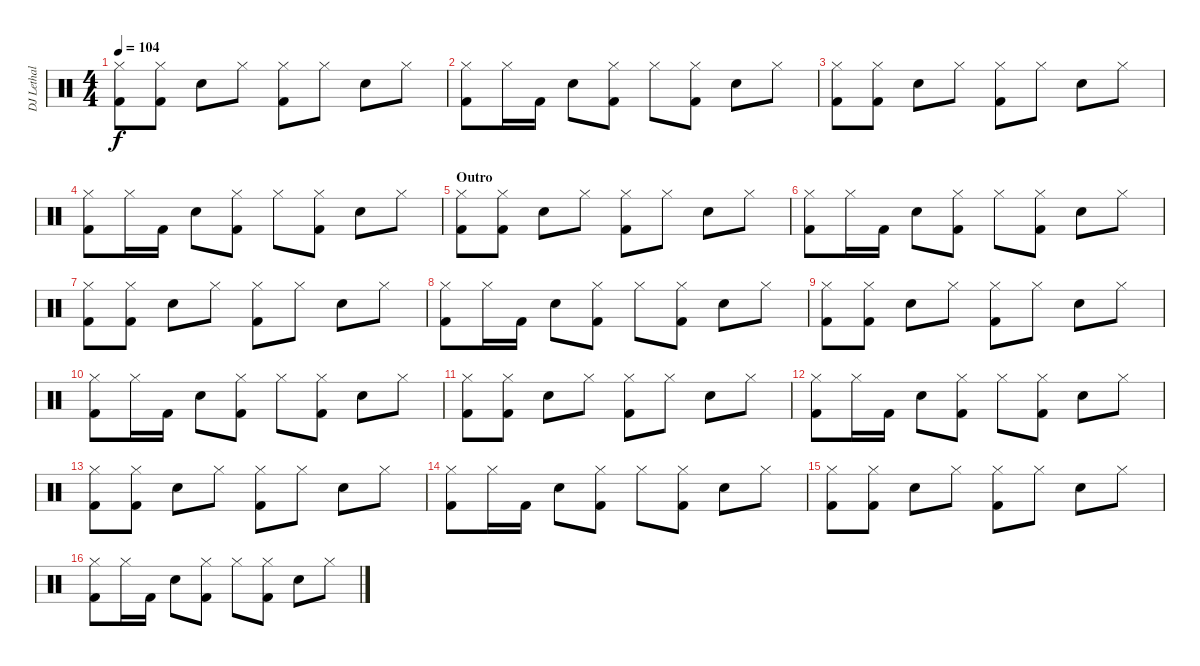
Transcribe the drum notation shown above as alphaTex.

\track ("DJ Lethal - Sample Drums" "DJ Lethal ") {instrument percussion}
\staff {score}
\articulation defaults
\ts (4 4)
\tempo 104
\clef neutral
\ks c
("Hi-Hat (closed)" "Kick (hit) 2").8{dy f} ("Hi-Hat (closed)" "Kick (hit) 2").8 "Electric Snare (hit)".8 "Hi-Hat (closed)".8 ("Hi-Hat (closed)" "Kick (hit) 2").8 "Hi-Hat (closed)".8 "Electric Snare (hit)".8 "Hi-Hat (closed)".8 |
("Hi-Hat (closed)" "Kick (hit) 2").8 "Hi-Hat (closed)".16 "Kick (hit) 2".16 "Electric Snare (hit)".8 ("Hi-Hat (closed)" "Kick (hit) 2").8 "Hi-Hat (closed)".8 ("Hi-Hat (closed)" "Kick (hit) 2").8 "Electric Snare (hit)".8 "Hi-Hat (closed)".8 |
("Hi-Hat (closed)" "Kick (hit) 2").8 ("Hi-Hat (closed)" "Kick (hit) 2").8 "Electric Snare (hit)".8 "Hi-Hat (closed)".8 ("Hi-Hat (closed)" "Kick (hit) 2").8 "Hi-Hat (closed)".8 "Electric Snare (hit)".8 "Hi-Hat (closed)".8 |
("Hi-Hat (closed)" "Kick (hit) 2").8 "Hi-Hat (closed)".16 "Kick (hit) 2".16 "Electric Snare (hit)".8 ("Hi-Hat (closed)" "Kick (hit) 2").8 "Hi-Hat (closed)".8 ("Hi-Hat (closed)" "Kick (hit) 2").8 "Electric Snare (hit)".8 "Hi-Hat (closed)".8 |
\section ("" "Outro")
("Hi-Hat (closed)" "Kick (hit) 2").8 ("Hi-Hat (closed)" "Kick (hit) 2").8 "Electric Snare (hit)".8 "Hi-Hat (closed)".8 ("Hi-Hat (closed)" "Kick (hit) 2").8 "Hi-Hat (closed)".8 "Electric Snare (hit)".8 "Hi-Hat (closed)".8 |
("Hi-Hat (closed)" "Kick (hit) 2").8 "Hi-Hat (closed)".16 "Kick (hit) 2".16 "Electric Snare (hit)".8 ("Hi-Hat (closed)" "Kick (hit) 2").8 "Hi-Hat (closed)".8 ("Hi-Hat (closed)" "Kick (hit) 2").8 "Electric Snare (hit)".8 "Hi-Hat (closed)".8 |
("Hi-Hat (closed)" "Kick (hit) 2").8 ("Hi-Hat (closed)" "Kick (hit) 2").8 "Electric Snare (hit)".8 "Hi-Hat (closed)".8 ("Hi-Hat (closed)" "Kick (hit) 2").8 "Hi-Hat (closed)".8 "Electric Snare (hit)".8 "Hi-Hat (closed)".8 |
("Hi-Hat (closed)" "Kick (hit) 2").8 "Hi-Hat (closed)".16 "Kick (hit) 2".16 "Electric Snare (hit)".8 ("Hi-Hat (closed)" "Kick (hit) 2").8 "Hi-Hat (closed)".8 ("Hi-Hat (closed)" "Kick (hit) 2").8 "Electric Snare (hit)".8 "Hi-Hat (closed)".8 |
("Hi-Hat (closed)" "Kick (hit) 2").8 ("Hi-Hat (closed)" "Kick (hit) 2").8 "Electric Snare (hit)".8 "Hi-Hat (closed)".8 ("Hi-Hat (closed)" "Kick (hit) 2").8 "Hi-Hat (closed)".8 "Electric Snare (hit)".8 "Hi-Hat (closed)".8 |
("Hi-Hat (closed)" "Kick (hit) 2").8 "Hi-Hat (closed)".16 "Kick (hit) 2".16 "Electric Snare (hit)".8 ("Hi-Hat (closed)" "Kick (hit) 2").8 "Hi-Hat (closed)".8 ("Hi-Hat (closed)" "Kick (hit) 2").8 "Electric Snare (hit)".8 "Hi-Hat (closed)".8 |
("Hi-Hat (closed)" "Kick (hit) 2").8 ("Hi-Hat (closed)" "Kick (hit) 2").8 "Electric Snare (hit)".8 "Hi-Hat (closed)".8 ("Hi-Hat (closed)" "Kick (hit) 2").8 "Hi-Hat (closed)".8 "Electric Snare (hit)".8 "Hi-Hat (closed)".8 |
("Hi-Hat (closed)" "Kick (hit) 2").8 "Hi-Hat (closed)".16 "Kick (hit) 2".16 "Electric Snare (hit)".8 ("Hi-Hat (closed)" "Kick (hit) 2").8 "Hi-Hat (closed)".8 ("Hi-Hat (closed)" "Kick (hit) 2").8 "Electric Snare (hit)".8 "Hi-Hat (closed)".8 |
("Hi-Hat (closed)" "Kick (hit) 2").8 ("Hi-Hat (closed)" "Kick (hit) 2").8 "Electric Snare (hit)".8 "Hi-Hat (closed)".8 ("Hi-Hat (closed)" "Kick (hit) 2").8 "Hi-Hat (closed)".8 "Electric Snare (hit)".8 "Hi-Hat (closed)".8 |
("Hi-Hat (closed)" "Kick (hit) 2").8 "Hi-Hat (closed)".16 "Kick (hit) 2".16 "Electric Snare (hit)".8 ("Hi-Hat (closed)" "Kick (hit) 2").8 "Hi-Hat (closed)".8 ("Hi-Hat (closed)" "Kick (hit) 2").8 "Electric Snare (hit)".8 "Hi-Hat (closed)".8 |
("Hi-Hat (closed)" "Kick (hit) 2").8 ("Hi-Hat (closed)" "Kick (hit) 2").8 "Electric Snare (hit)".8 "Hi-Hat (closed)".8 ("Hi-Hat (closed)" "Kick (hit) 2").8 "Hi-Hat (closed)".8 "Electric Snare (hit)".8 "Hi-Hat (closed)".8 |
("Hi-Hat (closed)" "Kick (hit) 2").8 "Hi-Hat (closed)".16 "Kick (hit) 2".16 "Electric Snare (hit)".8 ("Hi-Hat (closed)" "Kick (hit) 2").8 "Hi-Hat (closed)".8 ("Hi-Hat (closed)" "Kick (hit) 2").8 "Electric Snare (hit)".8 "Hi-Hat (closed)".8
